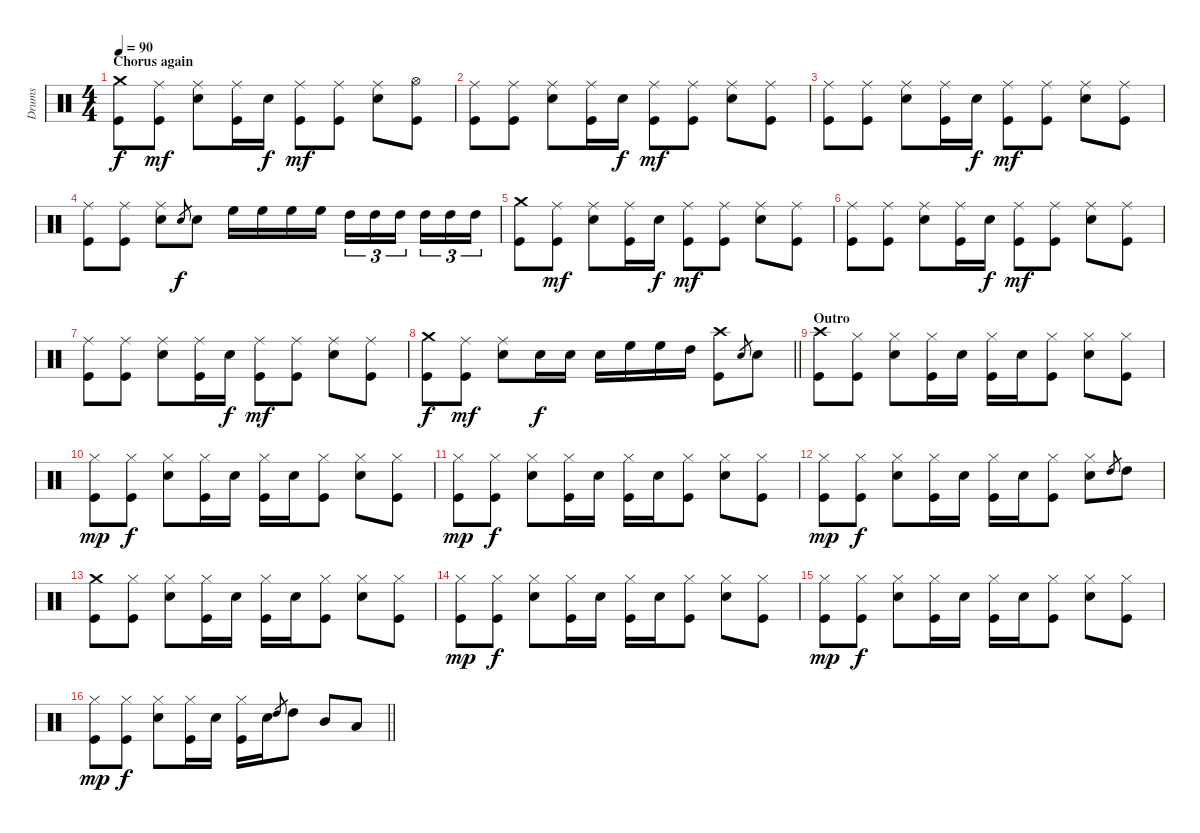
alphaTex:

\track ("Drums" "Drums") {instrument percussion}
\staff {score}
\articulation defaults
\ts (4 4)
\section ("" "Chorus again")
\tempo 90
\clef neutral
\ks c
("Kick (hit)" "Crash medium (hit)").8{dy f} ("Kick (hit)" "Ride (middle)").8{dy mf} ("Snare (hit) 2" "Ride (middle)").8 ("Ride (middle)" "Kick (hit)").16 "Snare (hit) 2".16{dy f} ("Kick (hit)" "Ride (middle)").8{dy mf} ("Kick (hit)" "Ride (middle)").8 ("Snare (hit) 2" "Ride (middle)").8 ("Kick (hit)" "Hi-Hat (open)").8 |
("Kick (hit)" "Ride (middle)").8 ("Kick (hit)" "Ride (middle)").8 ("Snare (hit) 2" "Ride (middle)").8 ("Ride (middle)" "Kick (hit)").16 "Snare (hit) 2".16{dy f} ("Kick (hit)" "Ride (middle)").8{dy mf} ("Kick (hit)" "Ride (middle)").8 ("Snare (hit) 2" "Ride (middle)").8 ("Kick (hit)" "Ride (middle)").8 |
("Kick (hit)" "Ride (middle)").8 ("Kick (hit)" "Ride (middle)").8 ("Snare (hit) 2" "Ride (middle)").8 ("Ride (middle)" "Kick (hit)").16 "Snare (hit) 2".16{dy f} ("Kick (hit)" "Ride (middle)").8{dy mf} ("Kick (hit)" "Ride (middle)").8 ("Snare (hit) 2" "Ride (middle)").8 ("Kick (hit)" "Ride (middle)").8 |
("Kick (hit)" "Ride (middle)").8 ("Kick (hit)" "Ride (middle)").8 ("Snare (hit) 2" "Ride (middle)").8 "Snare (hit) 2".8{gr dy f} "Snare (hit) 2".8 "High Floor Tom (hit)".16 "High Floor Tom (hit)".16 "High Floor Tom (hit)".16 "High Floor Tom (hit)".16 "High Tom (hit)".16{tu (3 2)} "High Tom (hit)".16{tu (3 2)} "High Tom (hit)".16{tu (3 2) beam splitsecondary} "High Tom (hit)".16{tu (3 2)} "High Tom (hit)".16{tu (3 2)} "High Tom (hit)".16{tu (3 2)} |
("Kick (hit)" "Crash medium (hit)").8 ("Kick (hit)" "Ride (middle)").8{dy mf} ("Snare (hit) 2" "Ride (middle)").8 ("Ride (middle)" "Kick (hit)").16 "Snare (hit) 2".16{dy f} ("Kick (hit)" "Ride (middle)").8{dy mf} ("Kick (hit)" "Ride (middle)").8 ("Snare (hit) 2" "Ride (middle)").8 ("Kick (hit)" "Ride (middle)").8 |
("Kick (hit)" "Ride (middle)").8 ("Kick (hit)" "Ride (middle)").8 ("Snare (hit) 2" "Ride (middle)").8 ("Kick (hit)" "Ride (middle)").16 "Snare (hit) 2".16{dy f} ("Kick (hit)" "Ride (middle)").8{dy mf} ("Kick (hit)" "Ride (middle)").8 ("Snare (hit) 2" "Ride (middle)").8 ("Kick (hit)" "Ride (middle)").8 |
("Kick (hit)" "Ride (middle)").8 ("Kick (hit)" "Ride (middle)").8 ("Snare (hit) 2" "Ride (middle)").8 ("Ride (middle)" "Kick (hit)").16 "Snare (hit) 2".16{dy f} ("Kick (hit)" "Ride (middle)").8{dy mf} ("Kick (hit)" "Ride (middle)").8 ("Snare (hit) 2" "Ride (middle)").8 ("Kick (hit)" "Ride (middle)").8 |
\barLineRight lightlight
("Kick (hit)" "Crash medium (hit)").8{dy f} ("Kick (hit)" "Ride (middle)").8{dy mf} ("Snare (hit) 2" "Ride (middle)").8 "Snare (hit) 2".16{dy f} "Snare (hit) 2".16 "Snare (hit) 2".16 "High Floor Tom (hit)".16 "High Floor Tom (hit)".16 "High Tom (hit)".16 ("Kick (hit)" "Crash high (hit)").8 "Snare (hit) 2".8{gr} "Snare (hit) 2".8 |
\section ("" "Outro")
("Kick (hit)" "Crash high (hit)").8 ("Hi-Hat (closed)" "Kick (hit)").8 ("Snare (hit) 2" "Hi-Hat (closed)").8 ("Kick (hit)" "Hi-Hat (closed)").16 "Snare (hit) 2".16 ("Kick (hit)" "Hi-Hat (closed)").16 "Snare (hit) 2".16 ("Kick (hit)" "Hi-Hat (closed)").8 ("Snare (hit) 2" "Hi-Hat (closed)").8 ("Kick (hit)" "Hi-Hat (closed)").8 |
("Kick (hit)" "Hi-Hat (closed)").8{dy mp} ("Hi-Hat (closed)" "Kick (hit)").8{dy f} ("Snare (hit) 2" "Hi-Hat (closed)").8 ("Kick (hit)" "Hi-Hat (closed)").16 "Snare (hit) 2".16 ("Kick (hit)" "Hi-Hat (closed)").16 "Snare (hit) 2".16 ("Kick (hit)" "Hi-Hat (closed)").8 ("Snare (hit) 2" "Hi-Hat (closed)").8 ("Kick (hit)" "Hi-Hat (closed)").8 |
("Kick (hit)" "Hi-Hat (closed)").8{dy mp} ("Hi-Hat (closed)" "Kick (hit)").8{dy f} ("Snare (hit) 2" "Hi-Hat (closed)").8 ("Kick (hit)" "Hi-Hat (closed)").16 "Snare (hit) 2".16 ("Kick (hit)" "Hi-Hat (closed)").16 "Snare (hit) 2".16 ("Kick (hit)" "Hi-Hat (closed)").8 ("Snare (hit) 2" "Hi-Hat (closed)").8 ("Kick (hit)" "Hi-Hat (closed)").8 |
("Kick (hit)" "Hi-Hat (closed)").8{dy mp} ("Hi-Hat (closed)" "Kick (hit)").8{dy f} ("Snare (hit) 2" "Hi-Hat (closed)").8 ("Kick (hit)" "Hi-Hat (closed)").16 "Snare (hit) 2".16 ("Kick (hit)" "Hi-Hat (closed)").16 "Snare (hit) 2".16 ("Kick (hit)" "Hi-Hat (closed)").8 ("Snare (hit) 2" "Hi-Hat (closed)").8 "High Tom (hit)".8{gr} "High Tom (hit)".8 |
("Kick (hit)" "Crash medium (hit)").8 ("Hi-Hat (closed)" "Kick (hit)").8 ("Snare (hit) 2" "Hi-Hat (closed)").8 ("Kick (hit)" "Hi-Hat (closed)").16 "Snare (hit) 2".16 ("Kick (hit)" "Hi-Hat (closed)").16 "Snare (hit) 2".16 ("Kick (hit)" "Hi-Hat (closed)").8 ("Snare (hit) 2" "Hi-Hat (closed)").8 ("Kick (hit)" "Hi-Hat (closed)").8 |
("Kick (hit)" "Hi-Hat (closed)").8{dy mp} ("Hi-Hat (closed)" "Kick (hit)").8{dy f} ("Snare (hit) 2" "Hi-Hat (closed)").8 ("Kick (hit)" "Hi-Hat (closed)").16 "Snare (hit) 2".16 ("Kick (hit)" "Hi-Hat (closed)").16 "Snare (hit) 2".16 ("Kick (hit)" "Hi-Hat (closed)").8 ("Snare (hit) 2" "Hi-Hat (closed)").8 ("Kick (hit)" "Hi-Hat (closed)").8 |
("Kick (hit)" "Hi-Hat (closed)").8{dy mp} ("Hi-Hat (closed)" "Kick (hit)").8{dy f} ("Snare (hit) 2" "Hi-Hat (closed)").8 ("Kick (hit)" "Hi-Hat (closed)").16 "Snare (hit) 2".16 ("Kick (hit)" "Hi-Hat (closed)").16 "Snare (hit) 2".16 ("Kick (hit)" "Hi-Hat (closed)").8 ("Snare (hit) 2" "Hi-Hat (closed)").8 ("Kick (hit)" "Hi-Hat (closed)").8 |
\barLineRight lightlight
("Kick (hit)" "Hi-Hat (closed)").8{dy mp} ("Hi-Hat (closed)" "Kick (hit)").8{dy f} ("Snare (hit) 2" "Hi-Hat (closed)").8 ("Kick (hit)" "Hi-Hat (closed)").16 "Snare (hit) 2".16 ("Kick (hit)" "Hi-Hat (closed)").16 "Snare (hit) 2".16 "High Tom (hit)".8{gr} "High Tom (hit)".8 "Mid Tom (hit)".8 "Low Tom (hit)".8
